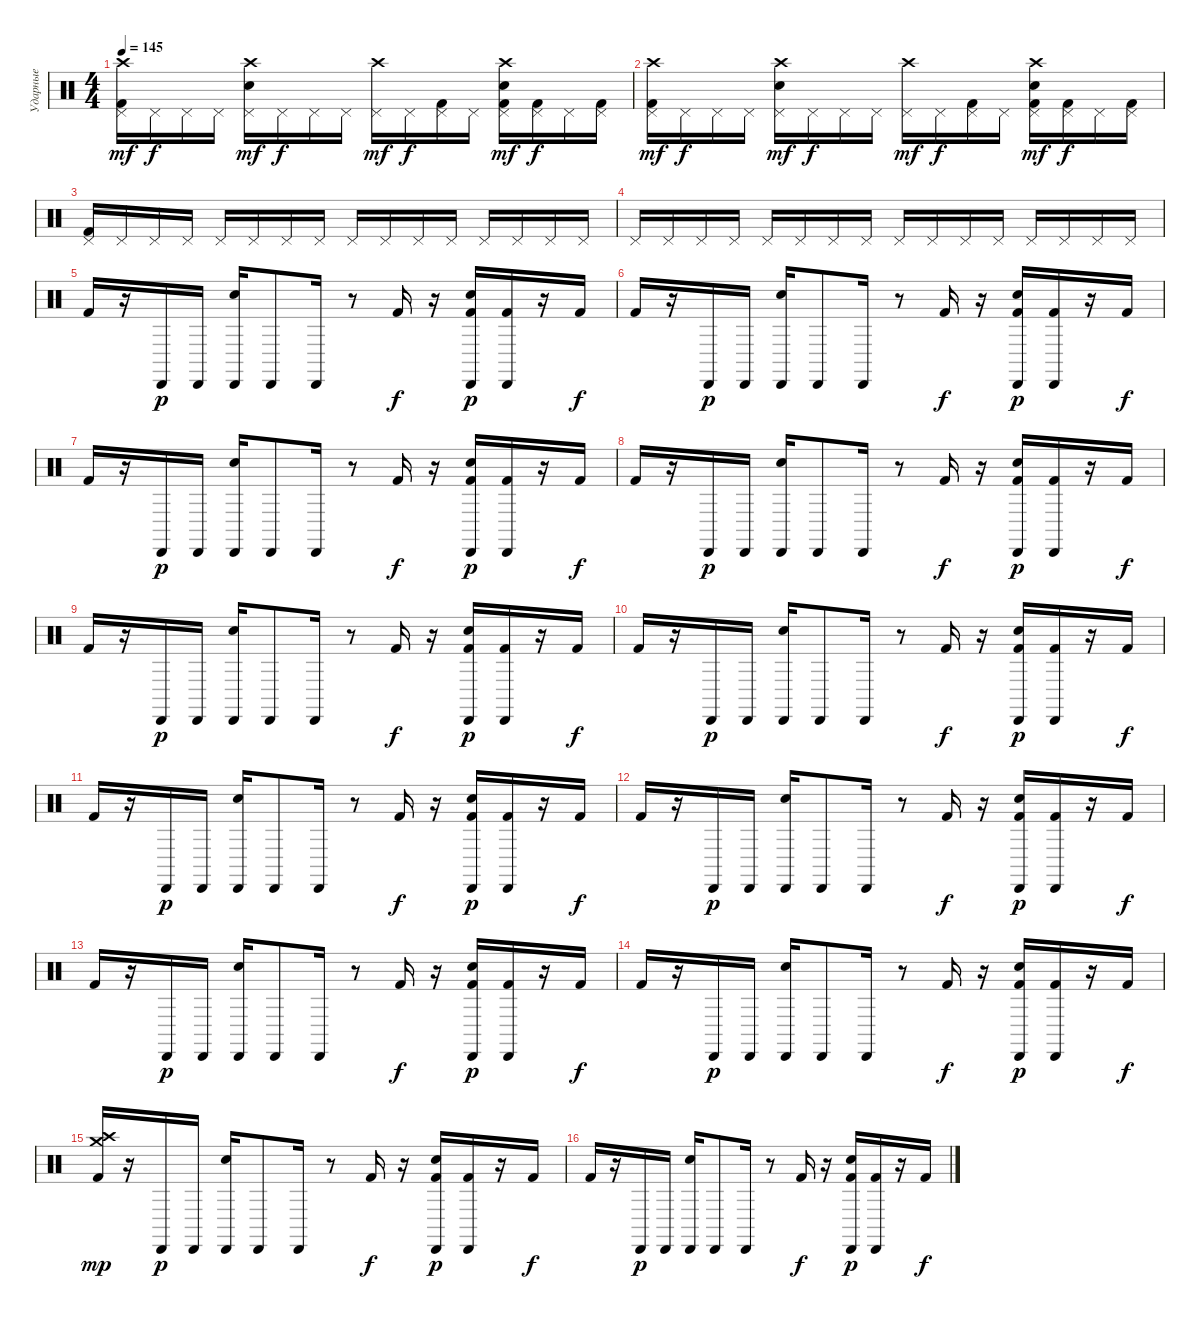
\track ("Ударные" "Ударные") {instrument percussion}
\staff {score}
\articulation defaults
\ts (4 4)
\tempo 145
\clef neutral
\ks c
("Crash high (hit)" "Kick (hit) 2" "Pedal Hi-Hat (hit)").16{dy mf} "Pedal Hi-Hat (hit)".16{dy f} "Pedal Hi-Hat (hit)".16 "Pedal Hi-Hat (hit)".16 ("Crash high (hit)" "Electric Snare (hit)" "Pedal Hi-Hat (hit)").16{dy mf} "Pedal Hi-Hat (hit)".16{dy f} "Pedal Hi-Hat (hit)".16 "Pedal Hi-Hat (hit)".16 ("Crash high (hit)" "Pedal Hi-Hat (hit)").16{dy mf} "Pedal Hi-Hat (hit)".16{dy f} ("Kick (hit) 2" "Pedal Hi-Hat (hit)").16 "Pedal Hi-Hat (hit)".16 ("Crash high (hit)" "Kick (hit) 2" "Electric Snare (hit)" "Pedal Hi-Hat (hit)").16{dy mf} ("Kick (hit) 2" "Pedal Hi-Hat (hit)").16{dy f} "Pedal Hi-Hat (hit)".16 ("Kick (hit) 2" "Pedal Hi-Hat (hit)").16 |
("Kick (hit) 2" "Pedal Hi-Hat (hit)" "Crash high (hit)").16{dy mf} "Pedal Hi-Hat (hit)".16{dy f} "Pedal Hi-Hat (hit)".16 "Pedal Hi-Hat (hit)".16 ("Electric Snare (hit)" "Pedal Hi-Hat (hit)" "Crash high (hit)").16{dy mf} "Pedal Hi-Hat (hit)".16{dy f} "Pedal Hi-Hat (hit)".16 "Pedal Hi-Hat (hit)".16 ("Pedal Hi-Hat (hit)" "Crash high (hit)").16{dy mf} "Pedal Hi-Hat (hit)".16{dy f} ("Kick (hit) 2" "Pedal Hi-Hat (hit)").16 "Pedal Hi-Hat (hit)".16 ("Kick (hit) 2" "Electric Snare (hit)" "Pedal Hi-Hat (hit)" "Crash high (hit)").16{dy mf} ("Kick (hit) 2" "Pedal Hi-Hat (hit)").16{dy f} "Pedal Hi-Hat (hit)".16 ("Kick (hit) 2" "Pedal Hi-Hat (hit)").16 |
("Kick (hit) 2" "Pedal Hi-Hat (hit)").16 "Pedal Hi-Hat (hit)".16 "Pedal Hi-Hat (hit)".16 "Pedal Hi-Hat (hit)".16 "Pedal Hi-Hat (hit)".16 "Pedal Hi-Hat (hit)".16 "Pedal Hi-Hat (hit)".16 "Pedal Hi-Hat (hit)".16 "Pedal Hi-Hat (hit)".16 "Pedal Hi-Hat (hit)".16 "Pedal Hi-Hat (hit)".16 "Pedal Hi-Hat (hit)".16 "Pedal Hi-Hat (hit)".16 "Pedal Hi-Hat (hit)".16 "Pedal Hi-Hat (hit)".16 "Pedal Hi-Hat (hit)".16 |
"Pedal Hi-Hat (hit)".16 "Pedal Hi-Hat (hit)".16 "Pedal Hi-Hat (hit)".16 "Pedal Hi-Hat (hit)".16 "Pedal Hi-Hat (hit)".16 "Pedal Hi-Hat (hit)".16 "Pedal Hi-Hat (hit)".16 "Pedal Hi-Hat (hit)".16 "Pedal Hi-Hat (hit)".16 "Pedal Hi-Hat (hit)".16 "Pedal Hi-Hat (hit)".16 "Pedal Hi-Hat (hit)".16 "Pedal Hi-Hat (hit)".16 "Pedal Hi-Hat (hit)".16 "Pedal Hi-Hat (hit)".16 "Pedal Hi-Hat (hit)".16 |
"Kick (hit) 2".16 r.16 "Cabasa (hit)".16{dy p} "Cabasa (hit)".16 ("Electric Snare (hit)" "Cabasa (hit)").16 "Cabasa (hit)".8 "Cabasa (hit)".16 r.8 "Kick (hit) 2".16{dy f} r.16 ("Kick (hit) 2" "Electric Snare (hit)" "Cabasa (hit)").16{dy p} ("Kick (hit) 2" "Cabasa (hit)").16 r.16 "Kick (hit) 2".16{dy f} |
"Kick (hit) 2".16 r.16 "Cabasa (hit)".16{dy p} "Cabasa (hit)".16 ("Electric Snare (hit)" "Cabasa (hit)").16 "Cabasa (hit)".8 "Cabasa (hit)".16 r.8 "Kick (hit) 2".16{dy f} r.16 ("Kick (hit) 2" "Electric Snare (hit)" "Cabasa (hit)").16{dy p} ("Kick (hit) 2" "Cabasa (hit)").16 r.16 "Kick (hit) 2".16{dy f} |
"Kick (hit) 2".16 r.16 "Cabasa (hit)".16{dy p} "Cabasa (hit)".16 ("Electric Snare (hit)" "Cabasa (hit)").16 "Cabasa (hit)".8 "Cabasa (hit)".16 r.8 "Kick (hit) 2".16{dy f} r.16 ("Kick (hit) 2" "Electric Snare (hit)" "Cabasa (hit)").16{dy p} ("Kick (hit) 2" "Cabasa (hit)").16 r.16 "Kick (hit) 2".16{dy f} |
"Kick (hit) 2".16 r.16 "Cabasa (hit)".16{dy p} "Cabasa (hit)".16 ("Electric Snare (hit)" "Cabasa (hit)").16 "Cabasa (hit)".8 "Cabasa (hit)".16 r.8 "Kick (hit) 2".16{dy f} r.16 ("Kick (hit) 2" "Electric Snare (hit)" "Cabasa (hit)").16{dy p} ("Kick (hit) 2" "Cabasa (hit)").16 r.16 "Kick (hit) 2".16{dy f} |
"Kick (hit) 2".16 r.16 "Cabasa (hit)".16{dy p} "Cabasa (hit)".16 ("Electric Snare (hit)" "Cabasa (hit)").16 "Cabasa (hit)".8 "Cabasa (hit)".16 r.8 "Kick (hit) 2".16{dy f} r.16 ("Kick (hit) 2" "Electric Snare (hit)" "Cabasa (hit)").16{dy p} ("Kick (hit) 2" "Cabasa (hit)").16 r.16 "Kick (hit) 2".16{dy f} |
"Kick (hit) 2".16 r.16 "Cabasa (hit)".16{dy p} "Cabasa (hit)".16 ("Electric Snare (hit)" "Cabasa (hit)").16 "Cabasa (hit)".8 "Cabasa (hit)".16 r.8 "Kick (hit) 2".16{dy f} r.16 ("Kick (hit) 2" "Electric Snare (hit)" "Cabasa (hit)").16{dy p} ("Kick (hit) 2" "Cabasa (hit)").16 r.16 "Kick (hit) 2".16{dy f} |
"Kick (hit) 2".16 r.16 "Cabasa (hit)".16{dy p} "Cabasa (hit)".16 ("Electric Snare (hit)" "Cabasa (hit)").16 "Cabasa (hit)".8 "Cabasa (hit)".16 r.8 "Kick (hit) 2".16{dy f} r.16 ("Kick (hit) 2" "Electric Snare (hit)" "Cabasa (hit)").16{dy p} ("Kick (hit) 2" "Cabasa (hit)").16 r.16 "Kick (hit) 2".16{dy f} |
"Kick (hit) 2".16 r.16 "Cabasa (hit)".16{dy p} "Cabasa (hit)".16 ("Electric Snare (hit)" "Cabasa (hit)").16 "Cabasa (hit)".8 "Cabasa (hit)".16 r.8 "Kick (hit) 2".16{dy f} r.16 ("Kick (hit) 2" "Electric Snare (hit)" "Cabasa (hit)").16{dy p} ("Kick (hit) 2" "Cabasa (hit)").16 r.16 "Kick (hit) 2".16{dy f} |
"Kick (hit) 2".16 r.16 "Cabasa (hit)".16{dy p} "Cabasa (hit)".16 ("Electric Snare (hit)" "Cabasa (hit)").16 "Cabasa (hit)".8 "Cabasa (hit)".16 r.8 "Kick (hit) 2".16{dy f} r.16 ("Kick (hit) 2" "Electric Snare (hit)" "Cabasa (hit)").16{dy p} ("Kick (hit) 2" "Cabasa (hit)").16 r.16 "Kick (hit) 2".16{dy f} |
"Kick (hit) 2".16 r.16 "Cabasa (hit)".16{dy p} "Cabasa (hit)".16 ("Electric Snare (hit)" "Cabasa (hit)").16 "Cabasa (hit)".8 "Cabasa (hit)".16 r.8 "Kick (hit) 2".16{dy f} r.16 ("Kick (hit) 2" "Electric Snare (hit)" "Cabasa (hit)").16{dy p} ("Kick (hit) 2" "Cabasa (hit)").16 r.16 "Kick (hit) 2".16{dy f} |
("Kick (hit) 2" "Crash high (hit)" "Crash medium (hit)").16{dy mp} r.16 "Cabasa (hit)".16{dy p} "Cabasa (hit)".16 ("Electric Snare (hit)" "Cabasa (hit)").16 "Cabasa (hit)".8 "Cabasa (hit)".16 r.8 "Kick (hit) 2".16{dy f} r.16 ("Kick (hit) 2" "Electric Snare (hit)" "Cabasa (hit)").16{dy p} ("Kick (hit) 2" "Cabasa (hit)").16 r.16 "Kick (hit) 2".16{dy f} |
"Kick (hit) 2".16 r.16 "Cabasa (hit)".16{dy p} "Cabasa (hit)".16 ("Electric Snare (hit)" "Cabasa (hit)").16 "Cabasa (hit)".8 "Cabasa (hit)".16 r.8 "Kick (hit) 2".16{dy f} r.16 ("Kick (hit) 2" "Electric Snare (hit)" "Cabasa (hit)").16{dy p} ("Kick (hit) 2" "Cabasa (hit)").16 r.16 "Kick (hit) 2".16{dy f}
